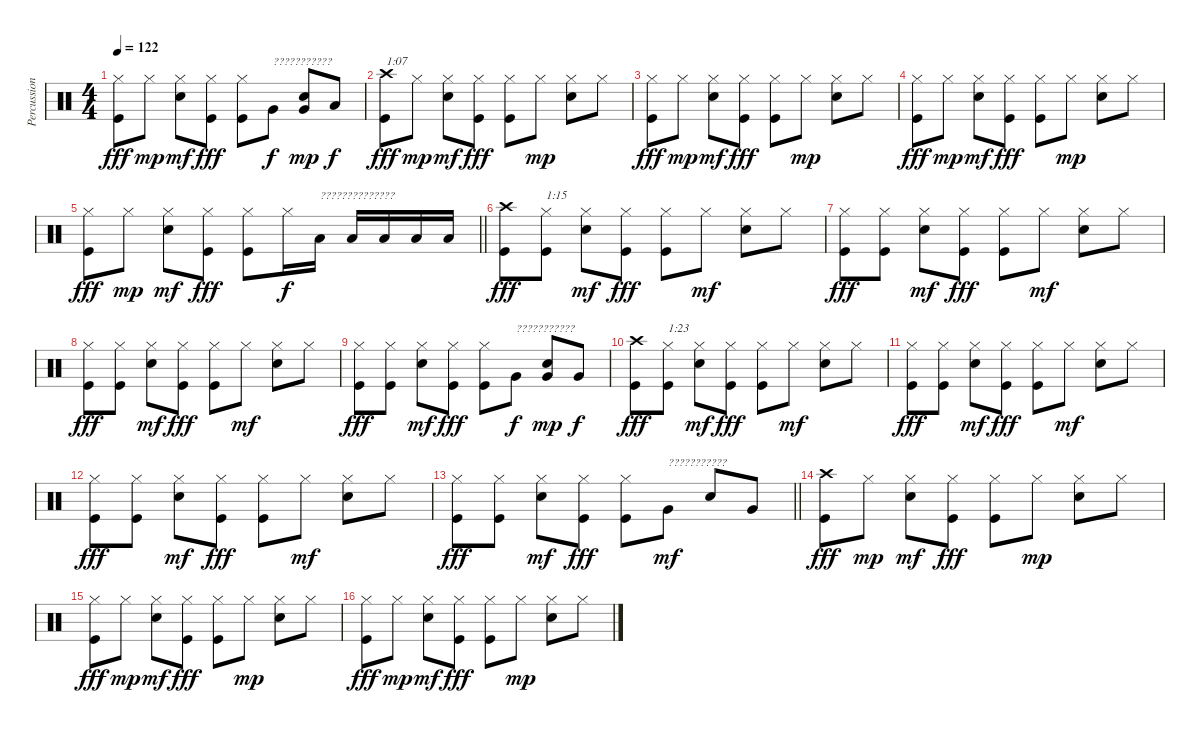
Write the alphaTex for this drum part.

\track ("Percussion" "Percussion") {instrument percussion}
\staff {score}
\articulation defaults
\ts (4 4)
\tempo 122
\clef neutral
\ks c
("Hi-Hat (closed)" "Kick (hit)").8{dy fff} "Hi-Hat (closed)".8{dy mp} ("Hi-Hat (closed)" "Snare (hit) 2").8{dy mf} ("Hi-Hat (closed)" "Kick (hit)").8{dy fff} ("Hi-Hat (closed)" "Kick (hit)").8 "Very Low Tom (hit)".8{txt "???????????" dy f} ("Very Low Tom (hit)" "Snare (hit) 2").8{dy mp} "Low Floor Tom (hit)".8{dy f} |
("Crash high (hit)" "Kick (hit)").8{txt "1:07" dy fff} "Hi-Hat (closed)".8{dy mp} ("Hi-Hat (closed)" "Snare (hit) 2").8{dy mf} ("Hi-Hat (closed)" "Kick (hit)").8{dy fff} ("Hi-Hat (closed)" "Kick (hit)").8 "Hi-Hat (closed)".8{dy mp} ("Hi-Hat (closed)" "Snare (hit) 2").8 "Hi-Hat (closed)".8 |
("Hi-Hat (closed)" "Kick (hit)").8{dy fff} "Hi-Hat (closed)".8{dy mp} ("Hi-Hat (closed)" "Snare (hit) 2").8{dy mf} ("Hi-Hat (closed)" "Kick (hit)").8{dy fff} ("Hi-Hat (closed)" "Kick (hit)").8 "Hi-Hat (closed)".8{dy mp} ("Hi-Hat (closed)" "Snare (hit) 2").8 "Hi-Hat (closed)".8 |
("Hi-Hat (closed)" "Kick (hit)").8{dy fff} "Hi-Hat (closed)".8{dy mp} ("Hi-Hat (closed)" "Snare (hit) 2").8{dy mf} ("Hi-Hat (closed)" "Kick (hit)").8{dy fff} ("Hi-Hat (closed)" "Kick (hit)").8 "Hi-Hat (closed)".8{dy mp} ("Hi-Hat (closed)" "Snare (hit) 2").8 "Hi-Hat (closed)".8 |
\barLineRight lightlight
("Hi-Hat (closed)" "Kick (hit)").8{dy fff} "Hi-Hat (closed)".8{dy mp} ("Hi-Hat (closed)" "Snare (hit) 2").8{dy mf} ("Hi-Hat (closed)" "Kick (hit)").8{dy fff} ("Hi-Hat (closed)" "Kick (hit)").8 "Hi-Hat (closed)".16{dy f} "Low Tom (hit)".16{txt "??????????????"} "Low Floor Tom (hit)".16 "Low Tom (hit)".16 "Low Floor Tom (hit)".16 "Low Tom (hit)".16 |
("Crash high (hit)" "Kick (hit)").8{dy fff} ("Hi-Hat (closed)" "Kick (hit)").8{txt "1:15"} ("Hi-Hat (closed)" "Snare (hit) 2").8{dy mf} ("Hi-Hat (closed)" "Kick (hit)").8{dy fff} ("Hi-Hat (closed)" "Kick (hit)").8 "Hi-Hat (closed)".8{dy mf} ("Hi-Hat (closed)" "Snare (hit) 2").8 "Hi-Hat (closed)".8 |
("Hi-Hat (closed)" "Kick (hit)").8{dy fff} ("Hi-Hat (closed)" "Kick (hit)").8 ("Hi-Hat (closed)" "Snare (hit) 2").8{dy mf} ("Hi-Hat (closed)" "Kick (hit)").8{dy fff} ("Hi-Hat (closed)" "Kick (hit)").8 "Hi-Hat (closed)".8{dy mf} ("Hi-Hat (closed)" "Snare (hit) 2").8 "Hi-Hat (closed)".8 |
("Hi-Hat (closed)" "Kick (hit)").8{dy fff} ("Hi-Hat (closed)" "Kick (hit)").8 ("Hi-Hat (closed)" "Snare (hit) 2").8{dy mf} ("Hi-Hat (closed)" "Kick (hit)").8{dy fff} ("Hi-Hat (closed)" "Kick (hit)").8 "Hi-Hat (closed)".8{dy mf} ("Hi-Hat (closed)" "Snare (hit) 2").8 "Hi-Hat (closed)".8 |
("Hi-Hat (closed)" "Kick (hit)").8{dy fff} ("Hi-Hat (closed)" "Kick (hit)").8 ("Hi-Hat (closed)" "Snare (hit) 2").8{dy mf} ("Hi-Hat (closed)" "Kick (hit)").8{dy fff} ("Hi-Hat (closed)" "Kick (hit)").8 "Very Low Tom (hit)".8{txt "???????????" dy f} ("Very Low Tom (hit)" "Snare (hit) 2").8{dy mp} "Very Low Tom (hit)".8{dy f} |
("Crash high (hit)" "Kick (hit)").8{dy fff} ("Hi-Hat (closed)" "Kick (hit)").8{txt "1:23"} ("Hi-Hat (closed)" "Snare (hit) 2").8{dy mf} ("Hi-Hat (closed)" "Kick (hit)").8{dy fff} ("Hi-Hat (closed)" "Kick (hit)").8 "Hi-Hat (closed)".8{dy mf} ("Hi-Hat (closed)" "Snare (hit) 2").8 "Hi-Hat (closed)".8 |
("Hi-Hat (closed)" "Kick (hit)").8{dy fff} ("Hi-Hat (closed)" "Kick (hit)").8 ("Hi-Hat (closed)" "Snare (hit) 2").8{dy mf} ("Hi-Hat (closed)" "Kick (hit)").8{dy fff} ("Hi-Hat (closed)" "Kick (hit)").8 "Hi-Hat (closed)".8{dy mf} ("Hi-Hat (closed)" "Snare (hit) 2").8 "Hi-Hat (closed)".8 |
("Hi-Hat (closed)" "Kick (hit)").8{dy fff} ("Hi-Hat (closed)" "Kick (hit)").8 ("Hi-Hat (closed)" "Snare (hit) 2").8{dy mf} ("Hi-Hat (closed)" "Kick (hit)").8{dy fff} ("Hi-Hat (closed)" "Kick (hit)").8 "Hi-Hat (closed)".8{dy mf} ("Hi-Hat (closed)" "Snare (hit) 2").8 "Hi-Hat (closed)".8 |
\barLineRight lightlight
("Hi-Hat (closed)" "Kick (hit)").8{dy fff} ("Hi-Hat (closed)" "Kick (hit)").8 ("Hi-Hat (closed)" "Snare (hit) 2").8{dy mf} ("Hi-Hat (closed)" "Kick (hit)").8{dy fff} ("Hi-Hat (closed)" "Kick (hit)").8 "Very Low Tom (hit)".8{txt "???????????" dy mf} "Snare (hit) 2".8 "Very Low Tom (hit)".8 |
("Crash high (hit)" "Kick (hit)").8{dy fff} "Hi-Hat (closed)".8{dy mp} ("Hi-Hat (closed)" "Snare (hit) 2").8{dy mf} ("Hi-Hat (closed)" "Kick (hit)").8{dy fff} ("Hi-Hat (closed)" "Kick (hit)").8 "Hi-Hat (closed)".8{dy mp} ("Hi-Hat (closed)" "Snare (hit) 2").8 "Hi-Hat (closed)".8 |
("Hi-Hat (closed)" "Kick (hit)").8{dy fff} "Hi-Hat (closed)".8{dy mp} ("Hi-Hat (closed)" "Snare (hit) 2").8{dy mf} ("Hi-Hat (closed)" "Kick (hit)").8{dy fff} ("Hi-Hat (closed)" "Kick (hit)").8 "Hi-Hat (closed)".8{dy mp} ("Hi-Hat (closed)" "Snare (hit) 2").8 "Hi-Hat (closed)".8 |
("Hi-Hat (closed)" "Kick (hit)").8{dy fff} "Hi-Hat (closed)".8{dy mp} ("Hi-Hat (closed)" "Snare (hit) 2").8{dy mf} ("Hi-Hat (closed)" "Kick (hit)").8{dy fff} ("Hi-Hat (closed)" "Kick (hit)").8 "Hi-Hat (closed)".8{dy mp} ("Hi-Hat (closed)" "Snare (hit) 2").8 "Hi-Hat (closed)".8
